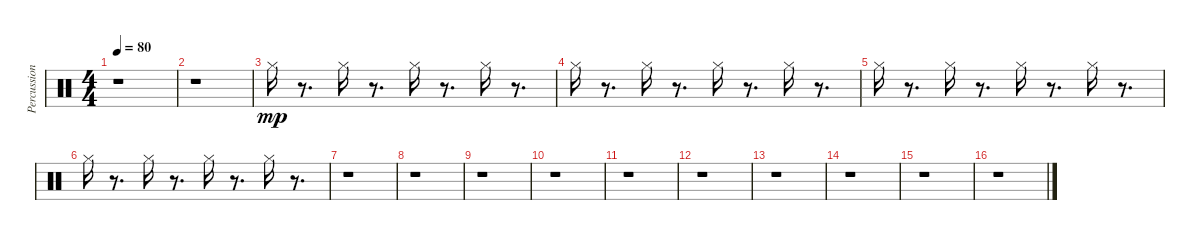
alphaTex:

\track ("Percussions" "Percussion") {instrument percussion}
\staff {score}
\articulation defaults
\ts (4 4)
\tempo 80
\clef neutral
\ks c
r.1{dy mp} |
r.1 |
"Hi-Hat (closed)".16 r.8{d} "Hi-Hat (closed)".16 r.8{d} "Hi-Hat (closed)".16 r.8{d} "Hi-Hat (closed)".16 r.8{d} |
"Hi-Hat (closed)".16 r.8{d} "Hi-Hat (closed)".16 r.8{d} "Hi-Hat (closed)".16 r.8{d} "Hi-Hat (closed)".16 r.8{d} |
"Hi-Hat (closed)".16 r.8{d} "Hi-Hat (closed)".16 r.8{d} "Hi-Hat (closed)".16 r.8{d} "Hi-Hat (closed)".16 r.8{d} |
"Hi-Hat (closed)".16 r.8{d} "Hi-Hat (closed)".16 r.8{d} "Hi-Hat (closed)".16 r.8{d} "Hi-Hat (closed)".16 r.8{d} |
r.1 |
r.1 |
r.1 |
r.1 |
r.1 |
r.1 |
r.1 |
r.1 |
r.1 |
r.1
